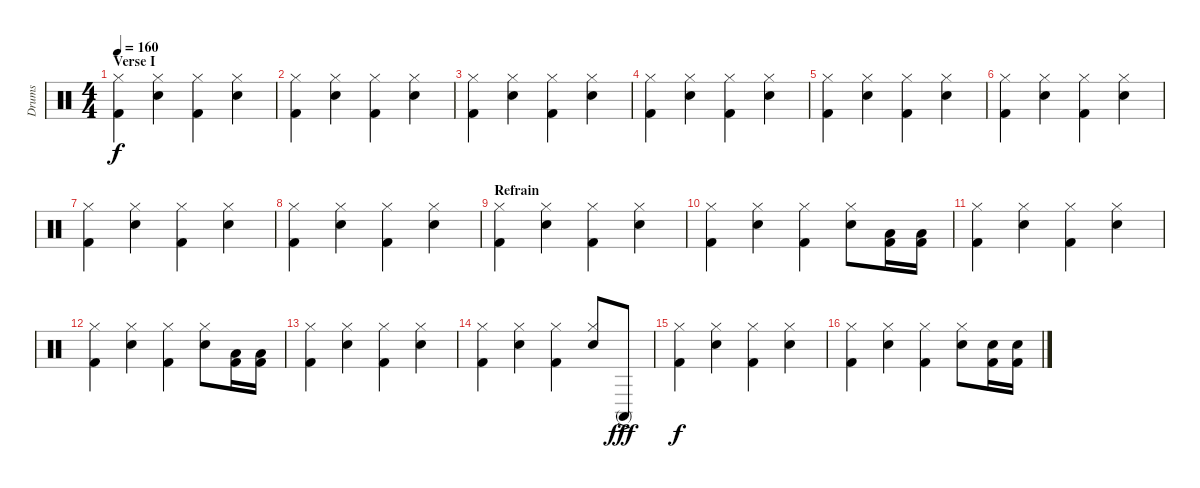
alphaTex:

\track ("Drums" "Drums") {instrument percussion}
\staff {score}
\articulation defaults
\ts (4 4)
\section ("" "Verse I")
\tempo 160
\clef neutral
\ks c
("Hi-Hat (closed)" "Kick (hit) 2").4{dy f} ("Hi-Hat (closed)" "Snare (hit) 2").4 ("Hi-Hat (closed)" "Kick (hit) 2").4 ("Hi-Hat (closed)" "Snare (hit) 2").4 |
("Hi-Hat (closed)" "Kick (hit) 2").4 ("Hi-Hat (closed)" "Snare (hit) 2").4 ("Hi-Hat (closed)" "Kick (hit) 2").4 ("Hi-Hat (closed)" "Snare (hit) 2").4 |
("Hi-Hat (closed)" "Kick (hit) 2").4 ("Hi-Hat (closed)" "Snare (hit) 2").4 ("Hi-Hat (closed)" "Kick (hit) 2").4 ("Hi-Hat (closed)" "Snare (hit) 2").4 |
("Hi-Hat (closed)" "Kick (hit) 2").4 ("Hi-Hat (closed)" "Snare (hit) 2").4 ("Hi-Hat (closed)" "Kick (hit) 2").4 ("Hi-Hat (closed)" "Snare (hit) 2").4 |
("Hi-Hat (closed)" "Kick (hit) 2").4 ("Hi-Hat (closed)" "Snare (hit) 2").4 ("Hi-Hat (closed)" "Kick (hit) 2").4 ("Hi-Hat (closed)" "Snare (hit) 2").4 |
("Hi-Hat (closed)" "Kick (hit) 2").4 ("Hi-Hat (closed)" "Snare (hit) 2").4 ("Hi-Hat (closed)" "Kick (hit) 2").4 ("Hi-Hat (closed)" "Snare (hit) 2").4 |
("Hi-Hat (closed)" "Kick (hit) 2").4 ("Hi-Hat (closed)" "Snare (hit) 2").4 ("Hi-Hat (closed)" "Kick (hit) 2").4 ("Hi-Hat (closed)" "Snare (hit) 2").4 |
("Hi-Hat (closed)" "Kick (hit) 2").4 ("Hi-Hat (closed)" "Snare (hit) 2").4 ("Hi-Hat (closed)" "Kick (hit) 2").4 ("Hi-Hat (closed)" "Snare (hit) 2").4 |
\section ("" "Refrain")
("Hi-Hat (closed)" "Kick (hit) 2").4 ("Hi-Hat (closed)" "Snare (hit) 2").4 ("Hi-Hat (closed)" "Kick (hit) 2").4 ("Hi-Hat (closed)" "Snare (hit) 2").4 |
("Hi-Hat (closed)" "Kick (hit) 2").4 ("Hi-Hat (closed)" "Snare (hit) 2").4 ("Hi-Hat (closed)" "Kick (hit) 2").4 ("Hi-Hat (closed)" "Snare (hit) 2").8 ("Low Tom (hit)" "Kick (hit) 2").16 ("Low Floor Tom (hit)" "Kick (hit) 2").16 |
("Hi-Hat (closed)" "Kick (hit) 2").4 ("Hi-Hat (closed)" "Snare (hit) 2").4 ("Hi-Hat (closed)" "Kick (hit) 2").4 ("Hi-Hat (closed)" "Snare (hit) 2").4 |
("Hi-Hat (closed)" "Kick (hit) 2").4 ("Hi-Hat (closed)" "Snare (hit) 2").4 ("Hi-Hat (closed)" "Kick (hit) 2").4 ("Hi-Hat (closed)" "Snare (hit) 2").8 ("Low Tom (hit)" "Kick (hit) 2").16 ("Low Floor Tom (hit)" "Kick (hit) 2").16 |
("Hi-Hat (closed)" "Kick (hit) 2").4 ("Hi-Hat (closed)" "Snare (hit) 2").4 ("Hi-Hat (closed)" "Kick (hit) 2").4 ("Hi-Hat (closed)" "Snare (hit) 2").4 |
("Hi-Hat (closed)" "Kick (hit) 2").4 ("Hi-Hat (closed)" "Snare (hit) 2").4 ("Hi-Hat (closed)" "Kick (hit) 2").4 ("Hi-Hat (closed)" "Snare (hit) 2").8 "Conga high (mute)"{ac}.8{dy fff} |
("Hi-Hat (closed)" "Kick (hit) 2").4{dy f} ("Hi-Hat (closed)" "Snare (hit) 2").4 ("Hi-Hat (closed)" "Kick (hit) 2").4 ("Hi-Hat (closed)" "Snare (hit) 2").4 |
("Hi-Hat (closed)" "Kick (hit) 2").4 ("Hi-Hat (closed)" "Snare (hit) 2").4 ("Hi-Hat (closed)" "Kick (hit) 2").4 ("Hi-Hat (closed)" "Snare (hit) 2").8 ("Snare (hit) 2" "Kick (hit) 2").16 ("Snare (hit) 2" "Kick (hit) 2").16
